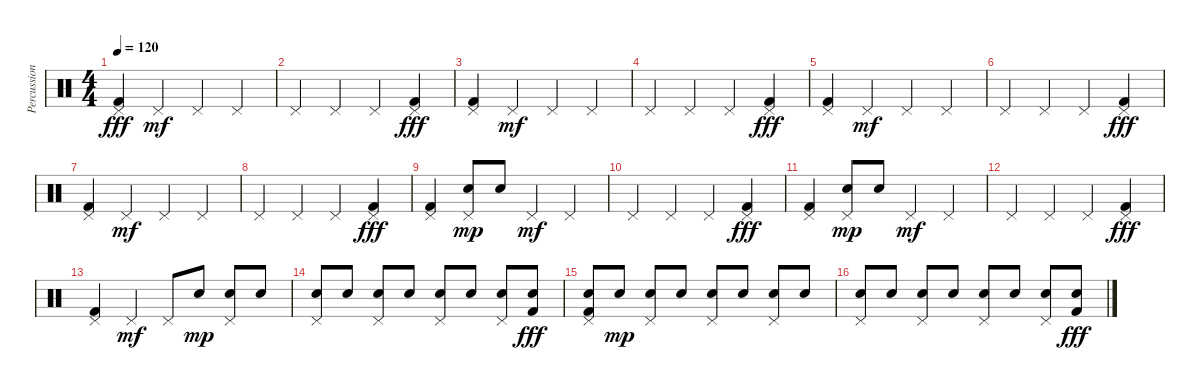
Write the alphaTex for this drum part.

\track ("Percussion" "Percussion") {instrument percussion}
\staff {score}
\articulation defaults
\ts (4 4)
\tempo 120
\clef neutral
\ks c
("Pedal Hi-Hat (hit)" "Kick (hit) 2").4{dy fff} "Pedal Hi-Hat (hit)".4{dy mf} "Pedal Hi-Hat (hit)".4 "Pedal Hi-Hat (hit)".4 |
"Pedal Hi-Hat (hit)".4 "Pedal Hi-Hat (hit)".4 "Pedal Hi-Hat (hit)".4 ("Pedal Hi-Hat (hit)" "Kick (hit) 2").4{dy fff} |
("Pedal Hi-Hat (hit)" "Kick (hit) 2").4 "Pedal Hi-Hat (hit)".4{dy mf} "Pedal Hi-Hat (hit)".4 "Pedal Hi-Hat (hit)".4 |
"Pedal Hi-Hat (hit)".4 "Pedal Hi-Hat (hit)".4 "Pedal Hi-Hat (hit)".4 ("Pedal Hi-Hat (hit)" "Kick (hit) 2").4{dy fff} |
("Pedal Hi-Hat (hit)" "Kick (hit) 2").4 "Pedal Hi-Hat (hit)".4{dy mf} "Pedal Hi-Hat (hit)".4 "Pedal Hi-Hat (hit)".4 |
"Pedal Hi-Hat (hit)".4 "Pedal Hi-Hat (hit)".4 "Pedal Hi-Hat (hit)".4 ("Pedal Hi-Hat (hit)" "Kick (hit) 2").4{dy fff} |
("Pedal Hi-Hat (hit)" "Kick (hit) 2").4 "Pedal Hi-Hat (hit)".4{dy mf} "Pedal Hi-Hat (hit)".4 "Pedal Hi-Hat (hit)".4 |
"Pedal Hi-Hat (hit)".4 "Pedal Hi-Hat (hit)".4 "Pedal Hi-Hat (hit)".4 ("Pedal Hi-Hat (hit)" "Kick (hit) 2").4{dy fff} |
("Pedal Hi-Hat (hit)" "Kick (hit) 2").4 ("Pedal Hi-Hat (hit)" "Electric Snare (hit)").8{dy mp} "Electric Snare (hit)".8 "Pedal Hi-Hat (hit)".4{dy mf} "Pedal Hi-Hat (hit)".4 |
"Pedal Hi-Hat (hit)".4 "Pedal Hi-Hat (hit)".4 "Pedal Hi-Hat (hit)".4 ("Pedal Hi-Hat (hit)" "Kick (hit) 2").4{dy fff} |
("Pedal Hi-Hat (hit)" "Kick (hit) 2").4 ("Pedal Hi-Hat (hit)" "Electric Snare (hit)").8{dy mp} "Electric Snare (hit)".8 "Pedal Hi-Hat (hit)".4{dy mf} "Pedal Hi-Hat (hit)".4 |
"Pedal Hi-Hat (hit)".4 "Pedal Hi-Hat (hit)".4 "Pedal Hi-Hat (hit)".4 ("Pedal Hi-Hat (hit)" "Kick (hit) 2").4{dy fff} |
("Pedal Hi-Hat (hit)" "Kick (hit) 2").4 "Pedal Hi-Hat (hit)".4{dy mf} "Pedal Hi-Hat (hit)".8 "Electric Snare (hit)".8{dy mp} ("Pedal Hi-Hat (hit)" "Electric Snare (hit)").8 "Electric Snare (hit)".8 |
("Pedal Hi-Hat (hit)" "Electric Snare (hit)").8 "Electric Snare (hit)".8 ("Pedal Hi-Hat (hit)" "Electric Snare (hit)").8 "Electric Snare (hit)".8 ("Pedal Hi-Hat (hit)" "Electric Snare (hit)").8 "Electric Snare (hit)".8 ("Pedal Hi-Hat (hit)" "Electric Snare (hit)").8 ("Electric Snare (hit)" "Kick (hit) 2").8{dy fff} |
("Pedal Hi-Hat (hit)" "Electric Snare (hit)" "Kick (hit) 2").8 "Electric Snare (hit)".8{dy mp} ("Pedal Hi-Hat (hit)" "Electric Snare (hit)").8 "Electric Snare (hit)".8 ("Pedal Hi-Hat (hit)" "Electric Snare (hit)").8 "Electric Snare (hit)".8 ("Pedal Hi-Hat (hit)" "Electric Snare (hit)").8 "Electric Snare (hit)".8 |
("Pedal Hi-Hat (hit)" "Electric Snare (hit)").8 "Electric Snare (hit)".8 ("Pedal Hi-Hat (hit)" "Electric Snare (hit)").8 "Electric Snare (hit)".8 ("Pedal Hi-Hat (hit)" "Electric Snare (hit)").8 "Electric Snare (hit)".8 ("Pedal Hi-Hat (hit)" "Electric Snare (hit)").8 ("Electric Snare (hit)" "Kick (hit) 2").8{dy fff}
